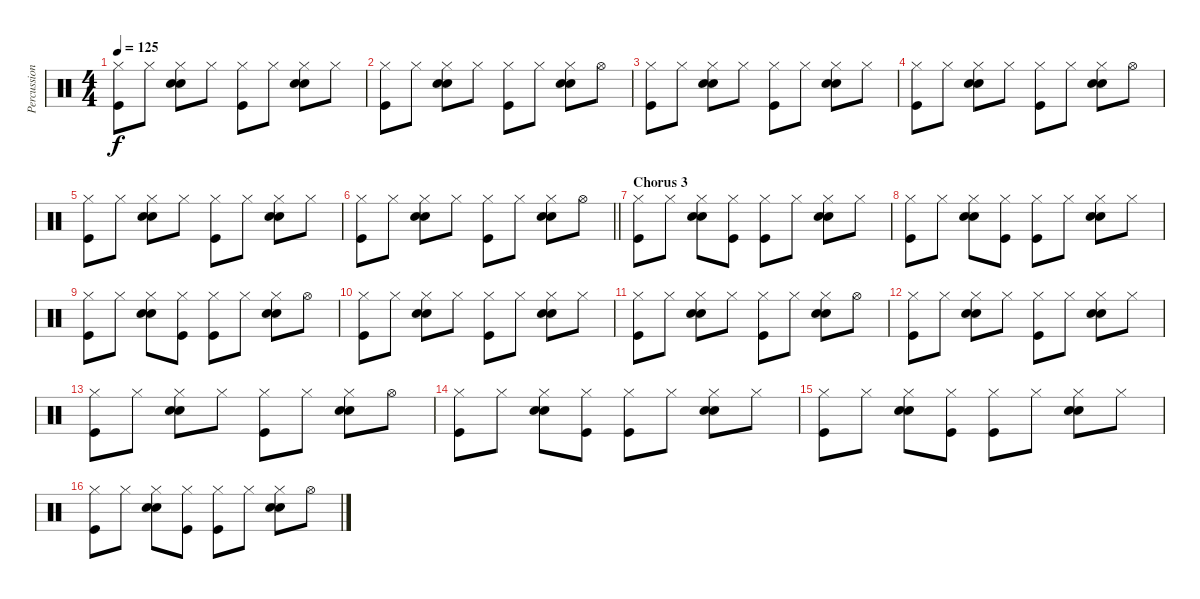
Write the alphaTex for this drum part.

\track ("Percussion" "Percussion") {instrument percussion}
\staff {score}
\articulation defaults
\ts (4 4)
\tempo 125
\clef neutral
\ks c
("Hi-Hat (closed)" "Kick (hit)").8{dy f} "Hi-Hat (closed)".8 ("Hi-Hat (closed)" "Hand Clap (hit)" "Snare (hit) 2").8 "Hi-Hat (closed)".8 ("Hi-Hat (closed)" "Kick (hit)").8 "Hi-Hat (closed)".8 ("Hi-Hat (closed)" "Hand Clap (hit)" "Snare (hit) 2").8 "Hi-Hat (closed)".8 |
("Hi-Hat (closed)" "Kick (hit)").8 "Hi-Hat (closed)".8 ("Hi-Hat (closed)" "Hand Clap (hit)" "Snare (hit) 2").8 "Hi-Hat (closed)".8 ("Hi-Hat (closed)" "Kick (hit)").8 "Hi-Hat (closed)".8 ("Hi-Hat (closed)" "Hand Clap (hit)" "Snare (hit) 2").8 "Hi-Hat (open)".8 |
("Hi-Hat (closed)" "Kick (hit)").8 "Hi-Hat (closed)".8 ("Hi-Hat (closed)" "Hand Clap (hit)" "Snare (hit) 2").8 "Hi-Hat (closed)".8 ("Hi-Hat (closed)" "Kick (hit)").8 "Hi-Hat (closed)".8 ("Hi-Hat (closed)" "Hand Clap (hit)" "Snare (hit) 2").8 "Hi-Hat (closed)".8 |
("Hi-Hat (closed)" "Kick (hit)").8 "Hi-Hat (closed)".8 ("Hi-Hat (closed)" "Hand Clap (hit)" "Snare (hit) 2").8 "Hi-Hat (closed)".8 ("Hi-Hat (closed)" "Kick (hit)").8 "Hi-Hat (closed)".8 ("Hi-Hat (closed)" "Hand Clap (hit)" "Snare (hit) 2").8 "Hi-Hat (open)".8 |
("Hi-Hat (closed)" "Kick (hit)").8 "Hi-Hat (closed)".8 ("Hi-Hat (closed)" "Hand Clap (hit)" "Snare (hit) 2").8 "Hi-Hat (closed)".8 ("Hi-Hat (closed)" "Kick (hit)").8 "Hi-Hat (closed)".8 ("Hi-Hat (closed)" "Hand Clap (hit)" "Snare (hit) 2").8 "Hi-Hat (closed)".8 |
\barLineRight lightlight
("Hi-Hat (closed)" "Kick (hit)").8 "Hi-Hat (closed)".8 ("Hi-Hat (closed)" "Hand Clap (hit)" "Snare (hit) 2").8 "Hi-Hat (closed)".8 ("Hi-Hat (closed)" "Kick (hit)").8 "Hi-Hat (closed)".8 ("Hi-Hat (closed)" "Hand Clap (hit)" "Snare (hit) 2").8 "Hi-Hat (open)".8 |
\section ("" "Chorus 3")
("Hi-Hat (closed)" "Kick (hit)").8 "Hi-Hat (closed)".8 ("Hi-Hat (closed)" "Hand Clap (hit)" "Snare (hit) 2").8 ("Hi-Hat (closed)" "Kick (hit)").8 ("Hi-Hat (closed)" "Kick (hit)").8 "Hi-Hat (closed)".8 ("Hi-Hat (closed)" "Hand Clap (hit)" "Snare (hit) 2").8 "Hi-Hat (closed)".8 |
("Hi-Hat (closed)" "Kick (hit)").8 "Hi-Hat (closed)".8 ("Hi-Hat (closed)" "Hand Clap (hit)" "Snare (hit) 2").8 ("Hi-Hat (closed)" "Kick (hit)").8 ("Hi-Hat (closed)" "Kick (hit)").8 "Hi-Hat (closed)".8 ("Hi-Hat (closed)" "Hand Clap (hit)" "Snare (hit) 2").8 "Hi-Hat (closed)".8 |
("Hi-Hat (closed)" "Kick (hit)").8 "Hi-Hat (closed)".8 ("Hi-Hat (closed)" "Hand Clap (hit)" "Snare (hit) 2").8 ("Hi-Hat (closed)" "Kick (hit)").8 ("Hi-Hat (closed)" "Kick (hit)").8 "Hi-Hat (closed)".8 ("Hi-Hat (closed)" "Hand Clap (hit)" "Snare (hit) 2").8 "Hi-Hat (open)".8 |
("Hi-Hat (closed)" "Kick (hit)").8 "Hi-Hat (closed)".8 ("Hi-Hat (closed)" "Hand Clap (hit)" "Snare (hit) 2").8 "Hi-Hat (closed)".8 ("Hi-Hat (closed)" "Kick (hit)").8 "Hi-Hat (closed)".8 ("Hi-Hat (closed)" "Hand Clap (hit)" "Snare (hit) 2").8 "Hi-Hat (closed)".8 |
("Hi-Hat (closed)" "Kick (hit)").8 "Hi-Hat (closed)".8 ("Hi-Hat (closed)" "Hand Clap (hit)" "Snare (hit) 2").8 "Hi-Hat (closed)".8 ("Hi-Hat (closed)" "Kick (hit)").8 "Hi-Hat (closed)".8 ("Hi-Hat (closed)" "Hand Clap (hit)" "Snare (hit) 2").8 "Hi-Hat (open)".8 |
("Hi-Hat (closed)" "Kick (hit)").8 "Hi-Hat (closed)".8 ("Hi-Hat (closed)" "Hand Clap (hit)" "Snare (hit) 2").8 "Hi-Hat (closed)".8 ("Hi-Hat (closed)" "Kick (hit)").8 "Hi-Hat (closed)".8 ("Hi-Hat (closed)" "Hand Clap (hit)" "Snare (hit) 2").8 "Hi-Hat (closed)".8 |
("Hi-Hat (closed)" "Kick (hit)").8 "Hi-Hat (closed)".8 ("Hi-Hat (closed)" "Hand Clap (hit)" "Snare (hit) 2").8 "Hi-Hat (closed)".8 ("Hi-Hat (closed)" "Kick (hit)").8 "Hi-Hat (closed)".8 ("Hi-Hat (closed)" "Hand Clap (hit)" "Snare (hit) 2").8 "Hi-Hat (open)".8 |
("Hi-Hat (closed)" "Kick (hit)").8 "Hi-Hat (closed)".8 ("Hi-Hat (closed)" "Hand Clap (hit)" "Snare (hit) 2").8 ("Hi-Hat (closed)" "Kick (hit)").8 ("Hi-Hat (closed)" "Kick (hit)").8 "Hi-Hat (closed)".8 ("Hi-Hat (closed)" "Hand Clap (hit)" "Snare (hit) 2").8 "Hi-Hat (closed)".8 |
("Hi-Hat (closed)" "Kick (hit)").8 "Hi-Hat (closed)".8 ("Hi-Hat (closed)" "Hand Clap (hit)" "Snare (hit) 2").8 ("Hi-Hat (closed)" "Kick (hit)").8 ("Hi-Hat (closed)" "Kick (hit)").8 "Hi-Hat (closed)".8 ("Hi-Hat (closed)" "Hand Clap (hit)" "Snare (hit) 2").8 "Hi-Hat (closed)".8 |
("Hi-Hat (closed)" "Kick (hit)").8 "Hi-Hat (closed)".8 ("Hi-Hat (closed)" "Hand Clap (hit)" "Snare (hit) 2").8 ("Hi-Hat (closed)" "Kick (hit)").8 ("Hi-Hat (closed)" "Kick (hit)").8 "Hi-Hat (closed)".8 ("Hi-Hat (closed)" "Hand Clap (hit)" "Snare (hit) 2").8 "Hi-Hat (open)".8
